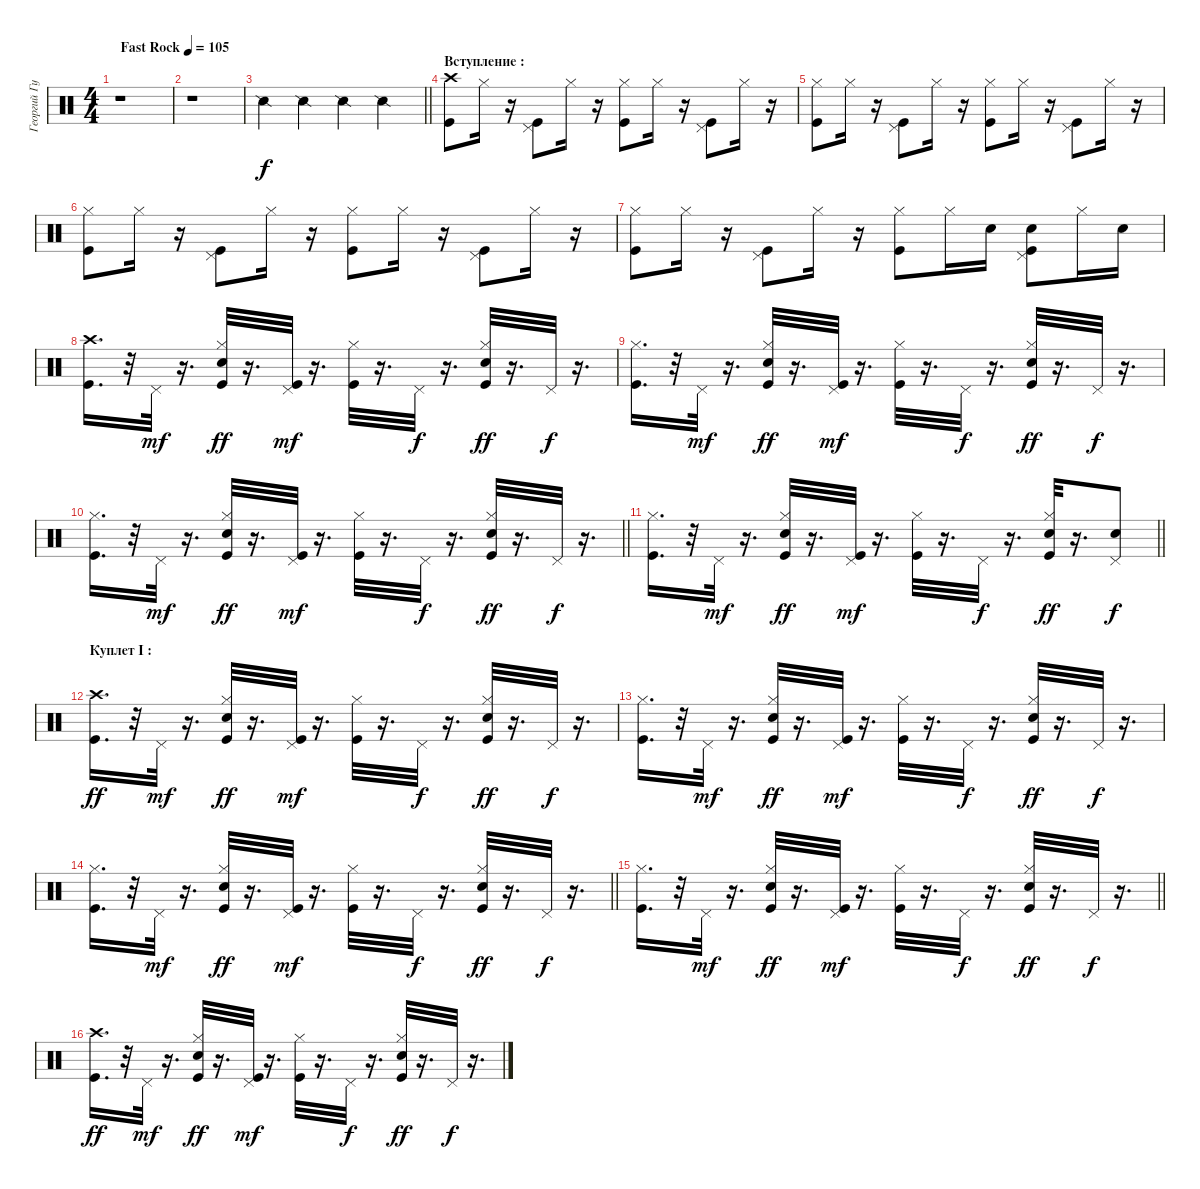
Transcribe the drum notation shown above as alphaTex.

\track ("Георгий Гурьянов" "Георгий Гу") {instrument percussion}
\staff {score}
\articulation defaults
\ts (4 4)
\tempo (105 "Fast Rock")
\clef neutral
\ks c
r.1{dy f} |
r.1 |
\barLineRight lightlight "Snare (side stick) 2".4 "Snare (side stick) 2".4 "Snare (side stick) 2".4 "Snare (side stick) 2".4
|
\section ("" "Вступление :")
("Crash high (hit)" "Kick (hit)").8 "Hi-Hat (closed)".16 r.16 ("Pedal Hi-Hat (hit)" "Kick (hit)").8 "Hi-Hat (closed)".16 r.16 ("Hi-Hat (closed)" "Kick (hit)").8 "Hi-Hat (closed)".16 r.16 ("Pedal Hi-Hat (hit)" "Kick (hit)").8 "Hi-Hat (closed)".16 r.16 |
("Hi-Hat (closed)" "Kick (hit)").8 "Hi-Hat (closed)".16 r.16 ("Pedal Hi-Hat (hit)" "Kick (hit)").8 "Hi-Hat (closed)".16 r.16 ("Hi-Hat (closed)" "Kick (hit)").8 "Hi-Hat (closed)".16 r.16 ("Pedal Hi-Hat (hit)" "Kick (hit)").8 "Hi-Hat (closed)".16 r.16 |
("Hi-Hat (closed)" "Kick (hit)").8 "Hi-Hat (closed)".16 r.16 ("Pedal Hi-Hat (hit)" "Kick (hit)").8 "Hi-Hat (closed)".16 r.16 ("Hi-Hat (closed)" "Kick (hit)").8 "Hi-Hat (closed)".16 r.16 ("Pedal Hi-Hat (hit)" "Kick (hit)").8 "Hi-Hat (closed)".16 r.16 |
("Hi-Hat (closed)" "Kick (hit)").8 "Hi-Hat (closed)".16 r.16 ("Pedal Hi-Hat (hit)" "Kick (hit)").8 "Hi-Hat (closed)".16 r.16 ("Hi-Hat (closed)" "Kick (hit)").8 "Hi-Hat (closed)".16 "Snare (hit) 2".16 ("Pedal Hi-Hat (hit)" "Snare (hit) 2" "Kick (hit)").8 "Hi-Hat (closed)".16 "Snare (hit) 2".16 |
("Crash high (hit)" "Kick (hit)").16{d} r.32 "Pedal Hi-Hat (hit)".32{dy mf} r.16{d} ("Hi-Hat (closed)" "Snare (hit) 2" "Kick (hit)").32{dy ff} r.16{d} ("Pedal Hi-Hat (hit)" "Kick (hit)").32{dy mf} r.16{d} ("Hi-Hat (closed)" "Kick (hit)").32 r.16{d} "Pedal Hi-Hat (hit)".32{dy f} r.16{d} ("Hi-Hat (closed)" "Snare (hit) 2" "Kick (hit)").32{dy ff} r.16{d} "Pedal Hi-Hat (hit)".32{dy f} r.16{d} |
("Hi-Hat (closed)" "Kick (hit)").16{d} r.32 "Pedal Hi-Hat (hit)".32{dy mf} r.16{d} ("Hi-Hat (closed)" "Snare (hit) 2" "Kick (hit)").32{dy ff} r.16{d} ("Pedal Hi-Hat (hit)" "Kick (hit)").32{dy mf} r.16{d} ("Hi-Hat (closed)" "Kick (hit)").32 r.16{d} "Pedal Hi-Hat (hit)".32{dy f} r.16{d} ("Hi-Hat (closed)" "Snare (hit) 2" "Kick (hit)").32{dy ff} r.16{d} "Pedal Hi-Hat (hit)".32{dy f} r.16{d} |
\barLineRight lightlight
("Hi-Hat (closed)" "Kick (hit)").16{d} r.32 "Pedal Hi-Hat (hit)".32{dy mf} r.16{d} ("Hi-Hat (closed)" "Snare (hit) 2" "Kick (hit)").32{dy ff} r.16{d} ("Pedal Hi-Hat (hit)" "Kick (hit)").32{dy mf} r.16{d} ("Hi-Hat (closed)" "Kick (hit)").32 r.16{d} "Pedal Hi-Hat (hit)".32{dy f} r.16{d} ("Hi-Hat (closed)" "Snare (hit) 2" "Kick (hit)").32{dy ff} r.16{d} "Pedal Hi-Hat (hit)".32{dy f} r.16{d} |
\section ("" "")
\barLineRight lightlight
("Hi-Hat (closed)" "Kick (hit)").16{d} r.32 "Pedal Hi-Hat (hit)".32{dy mf} r.16{d} ("Hi-Hat (closed)" "Snare (hit) 2" "Kick (hit)").32{dy ff} r.16{d} ("Pedal Hi-Hat (hit)" "Kick (hit)").32{dy mf} r.16{d} ("Hi-Hat (closed)" "Kick (hit)").32 r.16{d} "Pedal Hi-Hat (hit)".32{dy f} r.16{d} ("Hi-Hat (closed)" "Snare (hit) 2" "Kick (hit)").32{dy ff} r.16{d} ("Pedal Hi-Hat (hit)" "Snare (hit) 2").8{dy f} |
\section ("" "Куплет I :")
("Crash high (hit)" "Kick (hit)").16{d dy ff} r.32 "Pedal Hi-Hat (hit)".32{dy mf} r.16{d} ("Hi-Hat (closed)" "Snare (hit) 2" "Kick (hit)").32{dy ff} r.16{d} ("Pedal Hi-Hat (hit)" "Kick (hit)").32{dy mf} r.16{d} ("Hi-Hat (closed)" "Kick (hit)").32 r.16{d} "Pedal Hi-Hat (hit)".32{dy f} r.16{d} ("Hi-Hat (closed)" "Snare (hit) 2" "Kick (hit)").32{dy ff} r.16{d} "Pedal Hi-Hat (hit)".32{dy f} r.16{d} |
("Hi-Hat (closed)" "Kick (hit)").16{d} r.32 "Pedal Hi-Hat (hit)".32{dy mf} r.16{d} ("Hi-Hat (closed)" "Snare (hit) 2" "Kick (hit)").32{dy ff} r.16{d} ("Pedal Hi-Hat (hit)" "Kick (hit)").32{dy mf} r.16{d} ("Hi-Hat (closed)" "Kick (hit)").32 r.16{d} "Pedal Hi-Hat (hit)".32{dy f} r.16{d} ("Hi-Hat (closed)" "Snare (hit) 2" "Kick (hit)").32{dy ff} r.16{d} "Pedal Hi-Hat (hit)".32{dy f} r.16{d} |
\barLineRight lightlight
("Hi-Hat (closed)" "Kick (hit)").16{d} r.32 "Pedal Hi-Hat (hit)".32{dy mf} r.16{d} ("Hi-Hat (closed)" "Snare (hit) 2" "Kick (hit)").32{dy ff} r.16{d} ("Pedal Hi-Hat (hit)" "Kick (hit)").32{dy mf} r.16{d} ("Hi-Hat (closed)" "Kick (hit)").32 r.16{d} "Pedal Hi-Hat (hit)".32{dy f} r.16{d} ("Hi-Hat (closed)" "Snare (hit) 2" "Kick (hit)").32{dy ff} r.16{d} "Pedal Hi-Hat (hit)".32{dy f} r.16{d} |
\barLineRight lightlight
("Hi-Hat (closed)" "Kick (hit)").16{d} r.32 "Pedal Hi-Hat (hit)".32{dy mf} r.16{d} ("Hi-Hat (closed)" "Snare (hit) 2" "Kick (hit)").32{dy ff} r.16{d} ("Pedal Hi-Hat (hit)" "Kick (hit)").32{dy mf} r.16{d} ("Hi-Hat (closed)" "Kick (hit)").32 r.16{d} "Pedal Hi-Hat (hit)".32{dy f} r.16{d} ("Hi-Hat (closed)" "Snare (hit) 2" "Kick (hit)").32{dy ff} r.16{d} "Pedal Hi-Hat (hit)".32{dy f} r.16{d} |
("Crash high (hit)" "Kick (hit)").16{d dy ff} r.32 "Pedal Hi-Hat (hit)".32{dy mf} r.16{d} ("Hi-Hat (closed)" "Snare (hit) 2" "Kick (hit)").32{dy ff} r.16{d} ("Pedal Hi-Hat (hit)" "Kick (hit)").32{dy mf} r.16{d} ("Hi-Hat (closed)" "Kick (hit)").32 r.16{d} "Pedal Hi-Hat (hit)".32{dy f} r.16{d} ("Hi-Hat (closed)" "Snare (hit) 2" "Kick (hit)").32{dy ff} r.16{d} "Pedal Hi-Hat (hit)".32{dy f} r.16{d}
